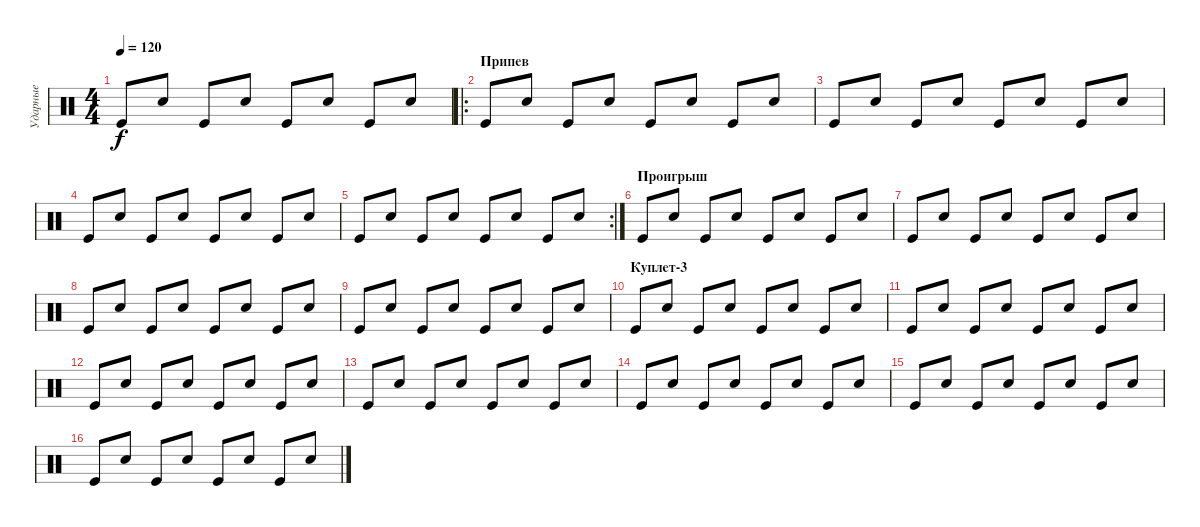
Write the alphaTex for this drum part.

\track ("Ударные" "Ударные") {instrument percussion}
\staff {score}
\articulation defaults
\ts (4 4)
\tempo 120
\clef neutral
\ks c "Kick (hit)".8{dy f} "Electric Snare (hit)".8 "Kick (hit)".8 "Electric Snare (hit)".8 "Kick (hit)".8 "Electric Snare (hit)".8 "Kick (hit)".8 "Electric Snare (hit)".8
|
\ro
\section ("" "Припев")
"Kick (hit)".8 "Electric Snare (hit)".8 "Kick (hit)".8 "Electric Snare (hit)".8 "Kick (hit)".8 "Electric Snare (hit)".8 "Kick (hit)".8 "Electric Snare (hit)".8 |
"Kick (hit)".8 "Electric Snare (hit)".8 "Kick (hit)".8 "Electric Snare (hit)".8 "Kick (hit)".8 "Electric Snare (hit)".8 "Kick (hit)".8 "Electric Snare (hit)".8 |
"Kick (hit)".8 "Electric Snare (hit)".8 "Kick (hit)".8 "Electric Snare (hit)".8 "Kick (hit)".8 "Electric Snare (hit)".8 "Kick (hit)".8 "Electric Snare (hit)".8 |
\rc 2 "Kick (hit)".8 "Electric Snare (hit)".8 "Kick (hit)".8 "Electric Snare (hit)".8 "Kick (hit)".8 "Electric Snare (hit)".8 "Kick (hit)".8 "Electric Snare (hit)".8
|
\section ("" "Проигрыш")
"Kick (hit)".8 "Electric Snare (hit)".8 "Kick (hit)".8 "Electric Snare (hit)".8 "Kick (hit)".8 "Electric Snare (hit)".8 "Kick (hit)".8 "Electric Snare (hit)".8 |
"Kick (hit)".8 "Electric Snare (hit)".8 "Kick (hit)".8 "Electric Snare (hit)".8 "Kick (hit)".8 "Electric Snare (hit)".8 "Kick (hit)".8 "Electric Snare (hit)".8 |
"Kick (hit)".8 "Electric Snare (hit)".8 "Kick (hit)".8 "Electric Snare (hit)".8 "Kick (hit)".8 "Electric Snare (hit)".8 "Kick (hit)".8 "Electric Snare (hit)".8 |
"Kick (hit)".8 "Electric Snare (hit)".8 "Kick (hit)".8 "Electric Snare (hit)".8 "Kick (hit)".8 "Electric Snare (hit)".8 "Kick (hit)".8 "Electric Snare (hit)".8 |
\section ("" "Куплет-3")
"Kick (hit)".8 "Electric Snare (hit)".8 "Kick (hit)".8 "Electric Snare (hit)".8 "Kick (hit)".8 "Electric Snare (hit)".8 "Kick (hit)".8 "Electric Snare (hit)".8 |
"Kick (hit)".8 "Electric Snare (hit)".8 "Kick (hit)".8 "Electric Snare (hit)".8 "Kick (hit)".8 "Electric Snare (hit)".8 "Kick (hit)".8 "Electric Snare (hit)".8 |
"Kick (hit)".8 "Electric Snare (hit)".8 "Kick (hit)".8 "Electric Snare (hit)".8 "Kick (hit)".8 "Electric Snare (hit)".8 "Kick (hit)".8 "Electric Snare (hit)".8 |
"Kick (hit)".8 "Electric Snare (hit)".8 "Kick (hit)".8 "Electric Snare (hit)".8 "Kick (hit)".8 "Electric Snare (hit)".8 "Kick (hit)".8 "Electric Snare (hit)".8 |
"Kick (hit)".8 "Electric Snare (hit)".8 "Kick (hit)".8 "Electric Snare (hit)".8 "Kick (hit)".8 "Electric Snare (hit)".8 "Kick (hit)".8 "Electric Snare (hit)".8 |
"Kick (hit)".8 "Electric Snare (hit)".8 "Kick (hit)".8 "Electric Snare (hit)".8 "Kick (hit)".8 "Electric Snare (hit)".8 "Kick (hit)".8 "Electric Snare (hit)".8 |
"Kick (hit)".8 "Electric Snare (hit)".8 "Kick (hit)".8 "Electric Snare (hit)".8 "Kick (hit)".8 "Electric Snare (hit)".8 "Kick (hit)".8 "Electric Snare (hit)".8
